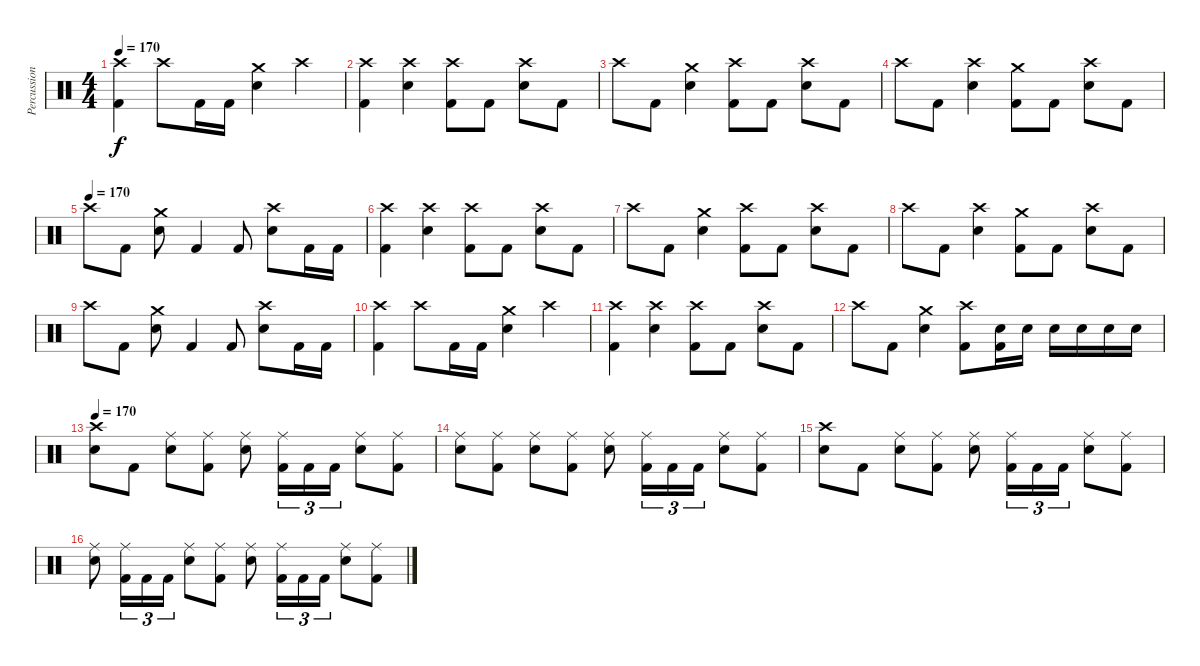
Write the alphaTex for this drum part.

\track ("Percussion" "Percussion") {instrument percussion}
\staff {score}
\articulation defaults
\ts (4 4)
\tempo 170
\clef neutral
\ks c
("Crash high (hit)" "Kick (hit) 2").4{dy f} "Crash high (hit)".8 "Kick (hit) 2".16 "Kick (hit) 2".16 ("Crash medium (hit)" "Electric Snare (hit)").4 "Crash high (hit)".4 |
("Crash high (hit)" "Kick (hit) 2").4 ("Crash high (hit)" "Electric Snare (hit)").4 ("Crash high (hit)" "Kick (hit) 2").8 "Kick (hit) 2".8 ("Crash high (hit)" "Electric Snare (hit)").8 "Kick (hit) 2".8 |
"Crash high (hit)".8 "Kick (hit) 2".8 ("Crash medium (hit)" "Electric Snare (hit)").4 ("Crash high (hit)" "Kick (hit) 2").8 "Kick (hit) 2".8 ("Crash high (hit)" "Electric Snare (hit)").8 "Kick (hit) 2".8 |
"Crash high (hit)".8 "Kick (hit) 2".8 ("Crash high (hit)" "Electric Snare (hit)").4 ("Crash medium (hit)" "Kick (hit) 2").8 "Kick (hit) 2".8 ("Crash high (hit)" "Electric Snare (hit)").8 "Kick (hit) 2".8 |
\tempo (170)
"Crash high (hit)".8 "Kick (hit) 2".8 ("Crash medium (hit)" "Electric Snare (hit)").8 "Kick (hit) 2".4 "Kick (hit) 2".8 ("Crash high (hit)" "Electric Snare (hit)").8 "Kick (hit) 2".16 "Kick (hit) 2".16 |
("Crash high (hit)" "Kick (hit) 2").4 ("Crash high (hit)" "Electric Snare (hit)").4 ("Crash high (hit)" "Kick (hit) 2").8 "Kick (hit) 2".8 ("Crash high (hit)" "Electric Snare (hit)").8 "Kick (hit) 2".8 |
"Crash high (hit)".8 "Kick (hit) 2".8 ("Crash medium (hit)" "Electric Snare (hit)").4 ("Crash high (hit)" "Kick (hit) 2").8 "Kick (hit) 2".8 ("Crash high (hit)" "Electric Snare (hit)").8 "Kick (hit) 2".8 |
"Crash high (hit)".8 "Kick (hit) 2".8 ("Crash high (hit)" "Electric Snare (hit)").4 ("Crash medium (hit)" "Kick (hit) 2").8 "Kick (hit) 2".8 ("Crash high (hit)" "Electric Snare (hit)").8 "Kick (hit) 2".8 |
"Crash high (hit)".8 "Kick (hit) 2".8 ("Crash medium (hit)" "Electric Snare (hit)").8 "Kick (hit) 2".4 "Kick (hit) 2".8 ("Crash high (hit)" "Electric Snare (hit)").8 "Kick (hit) 2".16 "Kick (hit) 2".16 |
("Crash high (hit)" "Kick (hit) 2").4 "Crash high (hit)".8 "Kick (hit) 2".16 "Kick (hit) 2".16 ("Crash medium (hit)" "Electric Snare (hit)").4 "Crash high (hit)".4 |
("Crash high (hit)" "Kick (hit) 2").4 ("Crash high (hit)" "Electric Snare (hit)").4 ("Crash high (hit)" "Kick (hit) 2").8 "Kick (hit) 2".8 ("Crash high (hit)" "Electric Snare (hit)").8 "Kick (hit) 2".8 |
"Crash high (hit)".8 "Kick (hit) 2".8 ("Crash medium (hit)" "Electric Snare (hit)").4 ("Crash high (hit)" "Kick (hit) 2").8 ("Electric Snare (hit)" "Kick (hit) 2").16 "Electric Snare (hit)".16 "Electric Snare (hit)".16 "Electric Snare (hit)".16 "Electric Snare (hit)".16 "Electric Snare (hit)".16 |
\tempo 170
("Crash high (hit)" "Electric Snare (hit)").8 "Kick (hit) 2".8 ("Ride (middle)" "Electric Snare (hit)").8 ("Ride (middle)" "Kick (hit) 2").8 ("Ride (middle)" "Electric Snare (hit)").8 ("Ride (middle)" "Kick (hit) 2").16{tu (3 2)} "Kick (hit) 2".16{tu (3 2)} "Kick (hit) 2".16{tu (3 2)} ("Ride (middle)" "Electric Snare (hit)").8 ("Ride (middle)" "Kick (hit) 2").8 |
("Ride (middle)" "Electric Snare (hit)").8 ("Ride (middle)" "Kick (hit) 2").8 ("Ride (middle)" "Electric Snare (hit)").8 ("Ride (middle)" "Kick (hit) 2").8 ("Ride (middle)" "Electric Snare (hit)").8 ("Ride (middle)" "Kick (hit) 2").16{tu (3 2)} "Kick (hit) 2".16{tu (3 2)} "Kick (hit) 2".16{tu (3 2)} ("Ride (middle)" "Electric Snare (hit)").8 ("Ride (middle)" "Kick (hit) 2").8 |
("Crash high (hit)" "Electric Snare (hit)").8 "Kick (hit) 2".8 ("Ride (middle)" "Electric Snare (hit)").8 ("Ride (middle)" "Kick (hit) 2").8 ("Ride (middle)" "Electric Snare (hit)").8 ("Ride (middle)" "Kick (hit) 2").16{tu (3 2)} "Kick (hit) 2".16{tu (3 2)} "Kick (hit) 2".16{tu (3 2)} ("Ride (middle)" "Electric Snare (hit)").8 ("Ride (middle)" "Kick (hit) 2").8 |
("Ride (middle)" "Electric Snare (hit)").8 ("Ride (middle)" "Kick (hit) 2").16{tu (3 2)} "Kick (hit) 2".16{tu (3 2)} "Kick (hit) 2".16{tu (3 2)} ("Ride (middle)" "Electric Snare (hit)").8 ("Ride (middle)" "Kick (hit) 2").8 ("Ride (middle)" "Electric Snare (hit)").8 ("Ride (middle)" "Kick (hit) 2").16{tu (3 2)} "Kick (hit) 2".16{tu (3 2)} "Kick (hit) 2".16{tu (3 2)} ("Ride (middle)" "Electric Snare (hit)").8 ("Ride (middle)" "Kick (hit) 2").8
